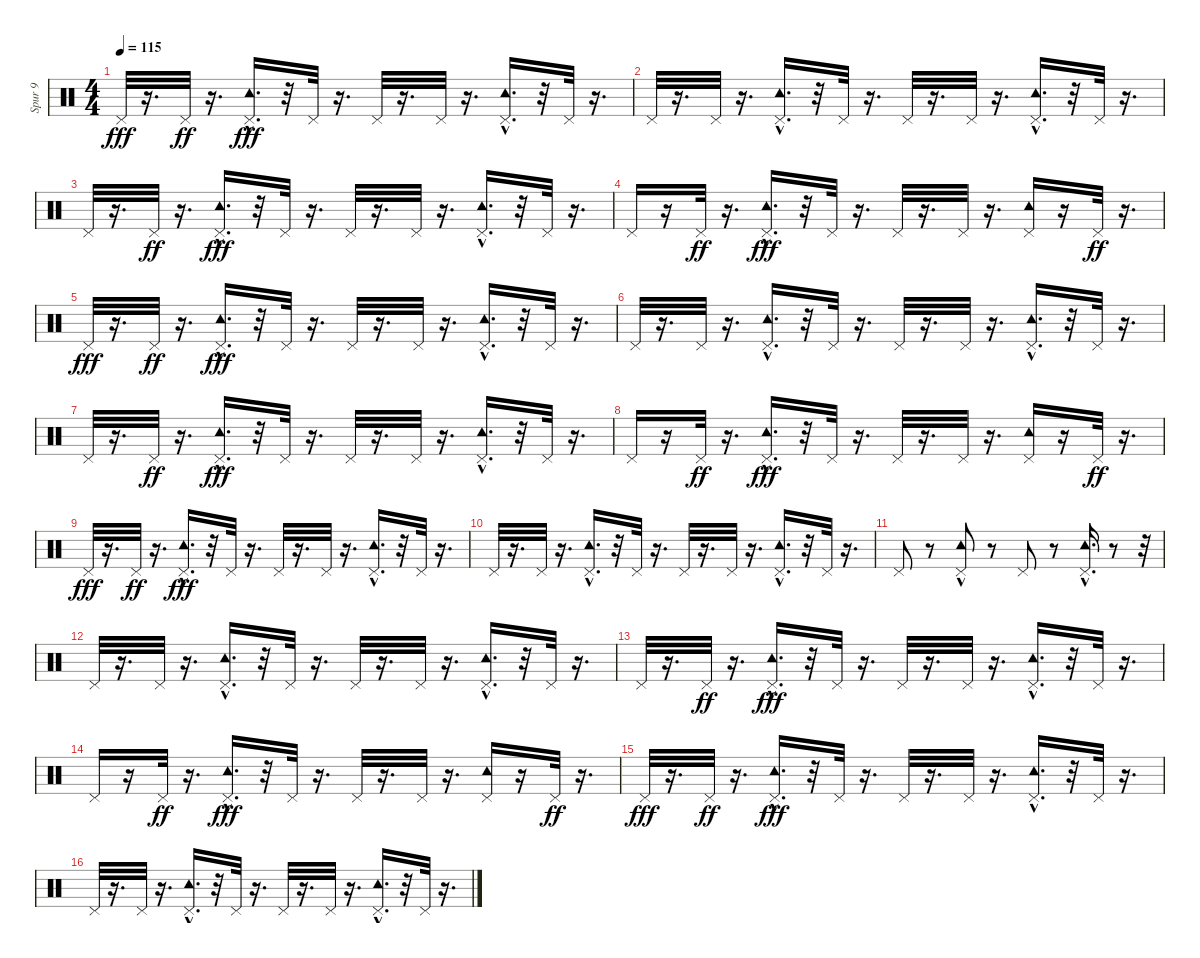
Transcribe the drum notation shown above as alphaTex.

\track ("Spur 9" "Spur 9") {instrument percussion}
\staff {score}
\articulation defaults
\ts (4 4)
\tempo 115
\clef neutral
\ks c "Pedal Hi-Hat (hit)".32{dy fff}
r.16{d} "Pedal Hi-Hat (hit)".32{dy ff} r.16{d} ("Tambourine (hit)"{hac} "Pedal Hi-Hat (hit)").16{d dy fff} r.32 "Pedal Hi-Hat (hit)".32 r.16{d} "Pedal Hi-Hat (hit)".32 r.16{d} "Pedal Hi-Hat (hit)".32 r.16{d} ("Pedal Hi-Hat (hit)" "Tambourine (hit)"{hac}).16{d} r.32 "Pedal Hi-Hat (hit)".32 r.16{d} |
"Pedal Hi-Hat (hit)".32 r.16{d} "Pedal Hi-Hat (hit)".32 r.16{d} ("Pedal Hi-Hat (hit)" "Tambourine (hit)"{hac}).16{d} r.32 "Pedal Hi-Hat (hit)".32 r.16{d} "Pedal Hi-Hat (hit)".32 r.16{d} "Pedal Hi-Hat (hit)".32 r.16{d} ("Pedal Hi-Hat (hit)" "Tambourine (hit)"{hac}).16{d} r.32 "Pedal Hi-Hat (hit)".32 r.16{d} |
"Pedal Hi-Hat (hit)".32 r.16{d} "Pedal Hi-Hat (hit)".32{dy ff} r.16{d} ("Tambourine (hit)"{hac} "Pedal Hi-Hat (hit)").16{d dy fff} r.32 "Pedal Hi-Hat (hit)".32 r.16{d} "Pedal Hi-Hat (hit)".32 r.16{d} "Pedal Hi-Hat (hit)".32 r.16{d} ("Pedal Hi-Hat (hit)" "Tambourine (hit)"{hac}).16{d} r.32 "Pedal Hi-Hat (hit)".32 r.16{d} |
"Pedal Hi-Hat (hit)".16 r.16 "Pedal Hi-Hat (hit)".32{dy ff} r.16{d} ("Tambourine (hit)"{hac} "Pedal Hi-Hat (hit)").16{d dy fff} r.32 "Pedal Hi-Hat (hit)".32 r.16{d} "Pedal Hi-Hat (hit)".32 r.16{d} "Pedal Hi-Hat (hit)".32 r.16{d} ("Pedal Hi-Hat (hit)" "Tambourine (hit)").16 r.16 "Pedal Hi-Hat (hit)".32{dy ff} r.16{d} |
"Pedal Hi-Hat (hit)".32{dy fff} r.16{d} "Pedal Hi-Hat (hit)".32{dy ff} r.16{d} ("Tambourine (hit)"{hac} "Pedal Hi-Hat (hit)").16{d dy fff} r.32 "Pedal Hi-Hat (hit)".32 r.16{d} "Pedal Hi-Hat (hit)".32 r.16{d} "Pedal Hi-Hat (hit)".32 r.16{d} ("Pedal Hi-Hat (hit)" "Tambourine (hit)"{hac}).16{d} r.32 "Pedal Hi-Hat (hit)".32 r.16{d} |
"Pedal Hi-Hat (hit)".32 r.16{d} "Pedal Hi-Hat (hit)".32 r.16{d} ("Pedal Hi-Hat (hit)" "Tambourine (hit)"{hac}).16{d} r.32 "Pedal Hi-Hat (hit)".32 r.16{d} "Pedal Hi-Hat (hit)".32 r.16{d} "Pedal Hi-Hat (hit)".32 r.16{d} ("Pedal Hi-Hat (hit)" "Tambourine (hit)"{hac}).16{d} r.32 "Pedal Hi-Hat (hit)".32 r.16{d} |
"Pedal Hi-Hat (hit)".32 r.16{d} "Pedal Hi-Hat (hit)".32{dy ff} r.16{d} ("Tambourine (hit)"{hac} "Pedal Hi-Hat (hit)").16{d dy fff} r.32 "Pedal Hi-Hat (hit)".32 r.16{d} "Pedal Hi-Hat (hit)".32 r.16{d} "Pedal Hi-Hat (hit)".32 r.16{d} ("Pedal Hi-Hat (hit)" "Tambourine (hit)"{hac}).16{d} r.32 "Pedal Hi-Hat (hit)".32 r.16{d} |
"Pedal Hi-Hat (hit)".16 r.16 "Pedal Hi-Hat (hit)".32{dy ff} r.16{d} ("Tambourine (hit)"{hac} "Pedal Hi-Hat (hit)").16{d dy fff} r.32 "Pedal Hi-Hat (hit)".32 r.16{d} "Pedal Hi-Hat (hit)".32 r.16{d} "Pedal Hi-Hat (hit)".32 r.16{d} ("Pedal Hi-Hat (hit)" "Tambourine (hit)").16 r.16 "Pedal Hi-Hat (hit)".32{dy ff} r.16{d} |
"Pedal Hi-Hat (hit)".32{dy fff} r.16{d} "Pedal Hi-Hat (hit)".32{dy ff} r.16{d} ("Tambourine (hit)"{hac} "Pedal Hi-Hat (hit)").16{d dy fff} r.32 "Pedal Hi-Hat (hit)".32 r.16{d} "Pedal Hi-Hat (hit)".32 r.16{d} "Pedal Hi-Hat (hit)".32 r.16{d} ("Pedal Hi-Hat (hit)" "Tambourine (hit)"{hac}).16{d} r.32 "Pedal Hi-Hat (hit)".32 r.16{d} |
"Pedal Hi-Hat (hit)".32 r.16{d} "Pedal Hi-Hat (hit)".32 r.16{d} ("Pedal Hi-Hat (hit)" "Tambourine (hit)"{hac}).16{d} r.32 "Pedal Hi-Hat (hit)".32 r.16{d} "Pedal Hi-Hat (hit)".32 r.16{d} "Pedal Hi-Hat (hit)".32 r.16{d} ("Pedal Hi-Hat (hit)" "Tambourine (hit)"{hac}).16{d} r.32 "Pedal Hi-Hat (hit)".32 r.16{d} |
"Pedal Hi-Hat (hit)".8 r.8 ("Pedal Hi-Hat (hit)" "Tambourine (hit)"{hac}).8 r.8 "Pedal Hi-Hat (hit)".8 r.8 ("Pedal Hi-Hat (hit)" "Tambourine (hit)"{hac}).16{d} r.8 r.32 |
"Pedal Hi-Hat (hit)".32 r.16{d} "Pedal Hi-Hat (hit)".32 r.16{d} ("Pedal Hi-Hat (hit)" "Tambourine (hit)"{hac}).16{d} r.32 "Pedal Hi-Hat (hit)".32 r.16{d} "Pedal Hi-Hat (hit)".32 r.16{d} "Pedal Hi-Hat (hit)".32 r.16{d} ("Pedal Hi-Hat (hit)" "Tambourine (hit)"{hac}).16{d} r.32 "Pedal Hi-Hat (hit)".32 r.16{d} |
"Pedal Hi-Hat (hit)".32 r.16{d} "Pedal Hi-Hat (hit)".32{dy ff} r.16{d} ("Tambourine (hit)"{hac} "Pedal Hi-Hat (hit)").16{d dy fff} r.32 "Pedal Hi-Hat (hit)".32 r.16{d} "Pedal Hi-Hat (hit)".32 r.16{d} "Pedal Hi-Hat (hit)".32 r.16{d} ("Pedal Hi-Hat (hit)" "Tambourine (hit)"{hac}).16{d} r.32 "Pedal Hi-Hat (hit)".32 r.16{d} |
"Pedal Hi-Hat (hit)".16 r.16 "Pedal Hi-Hat (hit)".32{dy ff} r.16{d} ("Tambourine (hit)"{hac} "Pedal Hi-Hat (hit)").16{d dy fff} r.32 "Pedal Hi-Hat (hit)".32 r.16{d} "Pedal Hi-Hat (hit)".32 r.16{d} "Pedal Hi-Hat (hit)".32 r.16{d} ("Pedal Hi-Hat (hit)" "Tambourine (hit)").16 r.16 "Pedal Hi-Hat (hit)".32{dy ff} r.16{d} |
"Pedal Hi-Hat (hit)".32{dy fff} r.16{d} "Pedal Hi-Hat (hit)".32{dy ff} r.16{d} ("Tambourine (hit)"{hac} "Pedal Hi-Hat (hit)").16{d dy fff} r.32 "Pedal Hi-Hat (hit)".32 r.16{d} "Pedal Hi-Hat (hit)".32 r.16{d} "Pedal Hi-Hat (hit)".32 r.16{d} ("Pedal Hi-Hat (hit)" "Tambourine (hit)"{hac}).16{d} r.32 "Pedal Hi-Hat (hit)".32 r.16{d} |
"Pedal Hi-Hat (hit)".32 r.16{d} "Pedal Hi-Hat (hit)".32 r.16{d} ("Pedal Hi-Hat (hit)" "Tambourine (hit)"{hac}).16{d} r.32 "Pedal Hi-Hat (hit)".32 r.16{d} "Pedal Hi-Hat (hit)".32 r.16{d} "Pedal Hi-Hat (hit)".32 r.16{d} ("Pedal Hi-Hat (hit)" "Tambourine (hit)"{hac}).16{d} r.32 "Pedal Hi-Hat (hit)".32 r.16{d}
